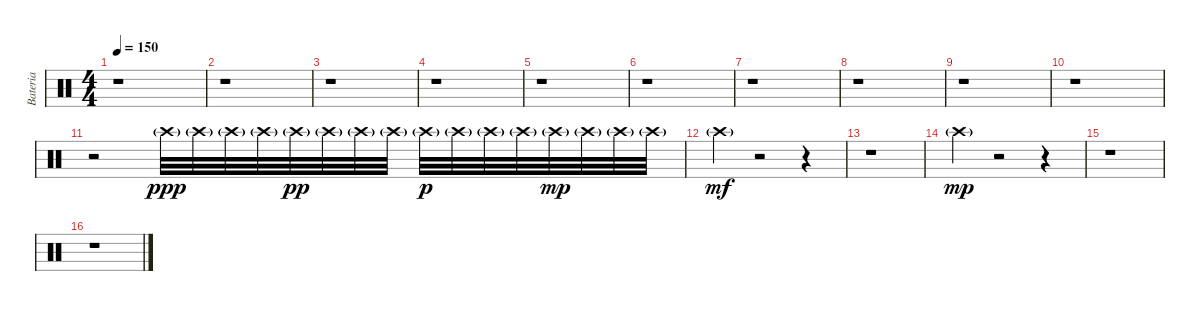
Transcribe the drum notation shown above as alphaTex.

\track ("Bateria" "Bateria") {instrument percussion}
\staff {score}
\articulation defaults
\ts (4 4)
\tempo 150
\tempo 98
\tempo 150
\clef neutral
\ks c
r.1{dy ppp} |
r.1 |
r.1 |
r.1 |
r.1 |
r.1 |
r.1 |
r.1 |
r.1 |
r.1 |
r.2 "Crash high (hit)"{g}.32 "Crash high (hit)"{g}.32 "Crash high (hit)"{g}.32 "Crash high (hit)"{g}.32 "Crash high (hit)"{g}.32{dy pp} "Crash high (hit)"{g}.32 "Crash high (hit)"{g}.32 "Crash high (hit)"{g}.32 "Crash high (hit)"{g}.32{dy p} "Crash high (hit)"{g}.32 "Crash high (hit)"{g}.32 "Crash high (hit)"{g}.32 "Crash high (hit)"{g}.32{dy mp} "Crash high (hit)"{g}.32 "Crash high (hit)"{g}.32 "Crash high (hit)"{g}.32 |
"Crash high (hit)"{g}.4{dy mf} r.2 r.4 |
r.1 |
"Crash high (hit)"{g}.4{dy mp} r.2 r.4 |
r.1 |
r.1
